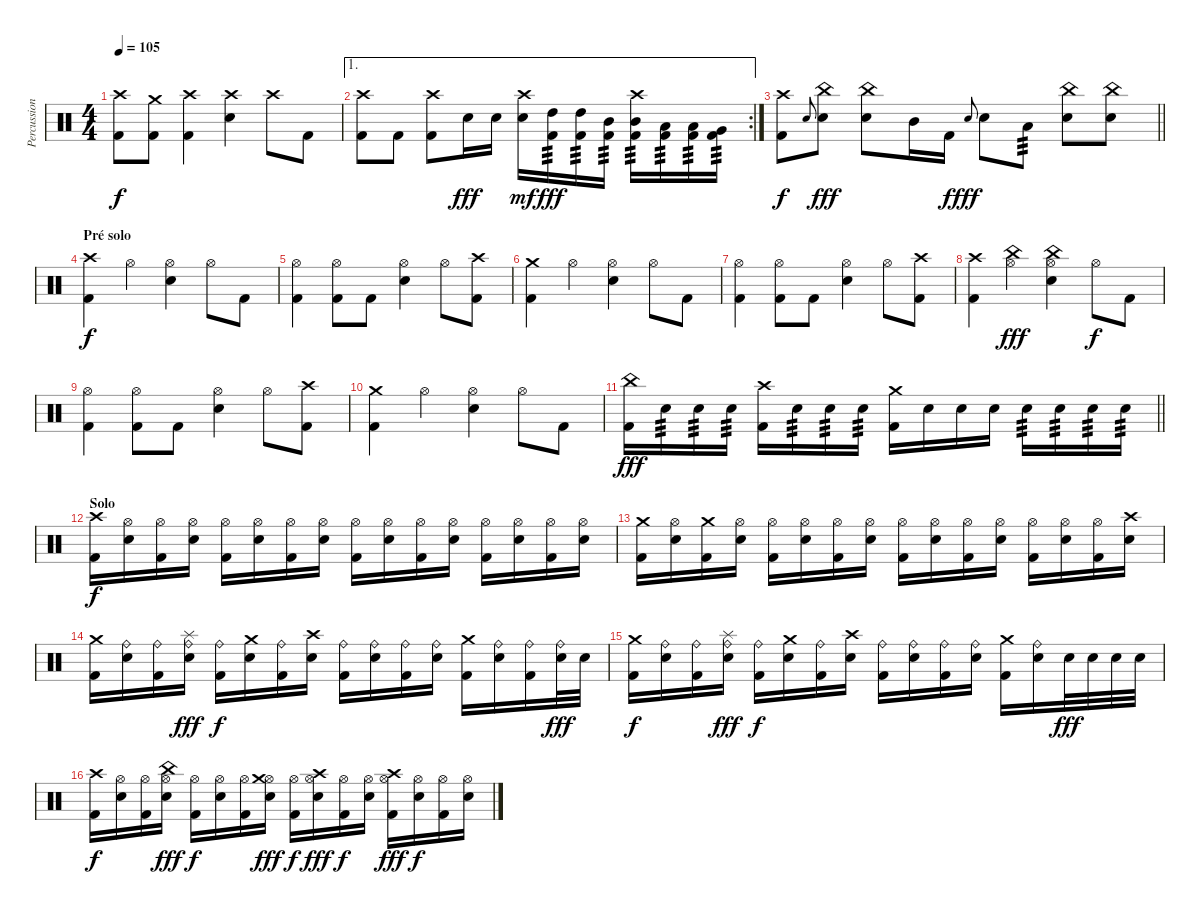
\track ("Percussions" "Percussion") {instrument percussion}
\staff {score}
\articulation defaults
\ts (4 4)
\tempo 105
\clef neutral
\ks c
("Crash high (hit)" "Kick (hit) 2").8{dy f} ("Crash medium (hit)" "Kick (hit) 2").8 ("Crash high (hit)" "Kick (hit) 2").4 ("Crash high (hit)" "Electric Snare (hit)").4 "Crash high (hit)".8 "Kick (hit) 2".8 |
\ae 1
\rc 2
("Crash high (hit)" "Kick (hit) 2").8 "Kick (hit) 2".8 ("Crash high (hit)" "Kick (hit) 2").8 "Electric Snare (hit)".16{dy fff} "Electric Snare (hit)".16 ("Crash high (hit)" "Electric Snare (hit)").16{dy mf} ("High Tom (hit)" "Kick (hit) 2").16{tp 3 dy fff} ("High Tom (hit)" "Kick (hit) 2").16{tp 3} ("Mid Tom (hit)" "Kick (hit) 2").16{tp 3} ("Crash high (hit)" "Mid Tom (hit)" "Kick (hit) 2").16{tp 3} ("Low Tom (hit)" "Kick (hit) 2").16{tp 3} ("Low Tom (hit)" "Kick (hit) 2").16{tp 3} ("Very Low Tom (hit)" "Kick (hit) 2").16{tp 3} |
\barLineRight lightlight
("Crash high (hit)" "Kick (hit) 2").8{dy f} "Electric Snare (hit)".8{gr onbeat} ("China (hit)" "Electric Snare (hit)").8{dy fff} ("China (hit)" "Electric Snare (hit)").8 "Mid Tom (hit)".16 "Kick (hit) 2".16{dy f} "Electric Snare (hit)".8{gr onbeat dy fff} "Electric Snare (hit)".8 "Low Tom (hit)".8{tp 3} ("China (hit)" "Electric Snare (hit)").8 ("China (hit)" "Electric Snare (hit)").8 |
\section ("" "Pré solo")
("Crash high (hit)" "Kick (hit) 2").4{dy f} "Hi-Hat (open)".4 ("Hi-Hat (open)" "Electric Snare (hit)").4 "Hi-Hat (open)".8 "Kick (hit) 2".8 |
("Hi-Hat (open)" "Kick (hit) 2").4 ("Hi-Hat (open)" "Kick (hit) 2").8 "Kick (hit) 2".8 ("Hi-Hat (open)" "Electric Snare (hit)").4 "Hi-Hat (open)".8 ("Crash high (hit)" "Kick (hit) 2").8 |
("Crash medium (hit)" "Kick (hit) 2").4 "Hi-Hat (open)".4 ("Hi-Hat (open)" "Electric Snare (hit)").4 "Hi-Hat (open)".8 "Kick (hit) 2".8 |
("Hi-Hat (open)" "Kick (hit) 2").4 ("Hi-Hat (open)" "Kick (hit) 2").8 "Kick (hit) 2".8 ("Hi-Hat (open)" "Electric Snare (hit)").4 "Hi-Hat (open)".8 ("Crash high (hit)" "Kick (hit) 2").8 |
("Crash high (hit)" "Kick (hit) 2").4 ("Hi-Hat (open)" "China (hit)").4{dy fff} ("Hi-Hat (open)" "China (hit)" "Electric Snare (hit)").4 "Hi-Hat (open)".8{dy f} "Kick (hit) 2".8 |
("Hi-Hat (open)" "Kick (hit) 2").4 ("Hi-Hat (open)" "Kick (hit) 2").8 "Kick (hit) 2".8 ("Hi-Hat (open)" "Electric Snare (hit)").4 "Hi-Hat (open)".8 ("Crash high (hit)" "Kick (hit) 2").8 |
("Crash medium (hit)" "Kick (hit) 2").4 "Hi-Hat (open)".4 ("Hi-Hat (open)" "Electric Snare (hit)").4 "Hi-Hat (open)".8 "Kick (hit) 2".8 |
\barLineRight lightlight
("China (hit)" "Kick (hit) 2").16{dy fff} "Electric Snare (hit)".16{tp 3} "Electric Snare (hit)".16{tp 3} "Electric Snare (hit)".16{tp 3} ("Crash high (hit)" "Kick (hit) 2").16 "Electric Snare (hit)".16{tp 3} "Electric Snare (hit)".16{tp 3} "Electric Snare (hit)".16{tp 3} ("Crash medium (hit)" "Kick (hit) 2").16 "Electric Snare (hit)".16 "Electric Snare (hit)".16 "Electric Snare (hit)".16 "Electric Snare (hit)".16{tp 3} "Electric Snare (hit)".16{tp 3} "Electric Snare (hit)".16{tp 3} "Electric Snare (hit)".16{tp 3} |
\section ("" "Solo")
("Crash high (hit)" "Kick (hit) 2").16{dy f} ("Hi-Hat (open)" "Electric Snare (hit)").16 ("Hi-Hat (open)" "Kick (hit) 2").16 ("Hi-Hat (open)" "Electric Snare (hit)").16 ("Hi-Hat (open)" "Kick (hit) 2").16 ("Hi-Hat (open)" "Electric Snare (hit)").16 ("Hi-Hat (open)" "Kick (hit) 2").16 ("Hi-Hat (open)" "Electric Snare (hit)").16 ("Hi-Hat (open)" "Kick (hit) 2").16 ("Hi-Hat (open)" "Electric Snare (hit)").16 ("Hi-Hat (open)" "Kick (hit) 2").16 ("Hi-Hat (open)" "Electric Snare (hit)").16 ("Hi-Hat (open)" "Kick (hit) 2").16 ("Hi-Hat (open)" "Electric Snare (hit)").16 ("Hi-Hat (open)" "Kick (hit) 2").16 ("Hi-Hat (open)" "Electric Snare (hit)").16 |
("Crash medium (hit)" "Kick (hit) 2").16 ("Hi-Hat (open)" "Electric Snare (hit)").16 ("Crash medium (hit)" "Kick (hit) 2").16 ("Hi-Hat (open)" "Electric Snare (hit)").16 ("Hi-Hat (open)" "Kick (hit) 2").16 ("Hi-Hat (open)" "Electric Snare (hit)").16 ("Hi-Hat (open)" "Kick (hit) 2").16 ("Hi-Hat (open)" "Electric Snare (hit)").16 ("Hi-Hat (open)" "Kick (hit) 2").16 ("Hi-Hat (open)" "Electric Snare (hit)").16 ("Hi-Hat (open)" "Kick (hit) 2").16 ("Hi-Hat (open)" "Electric Snare (hit)").16 ("Hi-Hat (open)" "Kick (hit) 2").16 ("Hi-Hat (open)" "Electric Snare (hit)").16 ("Hi-Hat (open)" "Kick (hit) 2").16 ("Crash high (hit)" "Electric Snare (hit)").16 |
("Crash medium (hit)" "Kick (hit) 2").16 ("Ride (bell)" "Electric Snare (hit)").16 ("Ride (bell)" "Kick (hit) 2").16 ("Splash (hit)" "Ride (bell)" "Electric Snare (hit)").16{dy fff} ("Ride (bell)" "Kick (hit) 2").16{dy f} ("Crash medium (hit)" "Electric Snare (hit)").16 ("Ride (bell)" "Kick (hit) 2").16 ("Crash high (hit)" "Electric Snare (hit)").16 ("Ride (bell)" "Kick (hit) 2").16 ("Ride (bell)" "Electric Snare (hit)").16 ("Ride (bell)" "Kick (hit) 2").16 ("Ride (bell)" "Electric Snare (hit)").16 ("Crash medium (hit)" "Kick (hit) 2").16 ("Ride (bell)" "Electric Snare (hit)").16 ("Ride (bell)" "Kick (hit) 2").16 ("Ride (bell)" "Electric Snare (hit)").32{dy fff} "Electric Snare (hit)".32 |
("Crash medium (hit)" "Kick (hit) 2").16{dy f} ("Ride (bell)" "Electric Snare (hit)").16 ("Ride (bell)" "Kick (hit) 2").16 ("Splash (hit)" "Ride (bell)" "Electric Snare (hit)").16{dy fff} ("Ride (bell)" "Kick (hit) 2").16{dy f} ("Crash medium (hit)" "Electric Snare (hit)").16 ("Ride (bell)" "Kick (hit) 2").16 ("Crash high (hit)" "Electric Snare (hit)").16 ("Ride (bell)" "Kick (hit) 2").16 ("Ride (bell)" "Electric Snare (hit)").16 ("Ride (bell)" "Kick (hit) 2").16 ("Ride (bell)" "Electric Snare (hit)").16 ("Crash medium (hit)" "Kick (hit) 2").16 ("Ride (bell)" "Electric Snare (hit)").16 "Electric Snare (hit)".32{dy fff} "Electric Snare (hit)".32 "Electric Snare (hit)".32 "Electric Snare (hit)".32 |
("Crash high (hit)" "Kick (hit) 2").16{dy f} ("Hi-Hat (open)" "Electric Snare (hit)").16 ("Hi-Hat (open)" "Kick (hit) 2").16 ("Hi-Hat (open)" "China (hit)" "Electric Snare (hit)").16{dy fff} ("Hi-Hat (open)" "Kick (hit) 2").16{dy f} ("Hi-Hat (open)" "Electric Snare (hit)").16 ("Hi-Hat (open)" "Kick (hit) 2").16 ("Hi-Hat (open)" "Crash medium (hit)" "Electric Snare (hit)").16{dy fff} ("Hi-Hat (open)" "Kick (hit) 2").16{dy f} ("Hi-Hat (open)" "Crash high (hit)" "Electric Snare (hit)").16{dy fff} ("Hi-Hat (open)" "Kick (hit) 2").16{dy f} ("Hi-Hat (open)" "Electric Snare (hit)").16 ("Hi-Hat (open)" "Crash high (hit)" "Kick (hit) 2").16{dy fff} ("Hi-Hat (open)" "Electric Snare (hit)").16{dy f} ("Hi-Hat (open)" "Kick (hit) 2").16 ("Hi-Hat (open)" "Electric Snare (hit)").16
